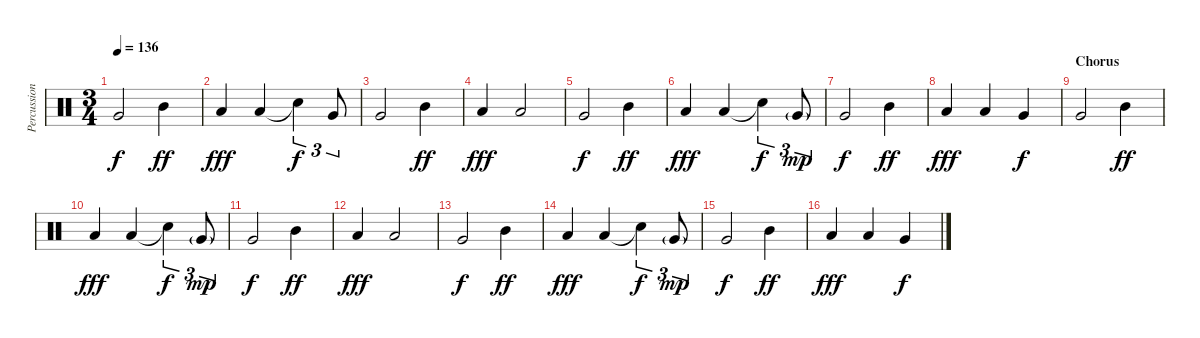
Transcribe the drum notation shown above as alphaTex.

\track ("Percussions / Stephen Van Haestregt" "Percussion") {instrument percussion}
\staff {score}
\articulation defaults
\ts (3 4)
\tempo 136
\clef neutral
\ks c "Very Low Tom (hit)".2{dy f} "Mid Tom (hit)".4{dy ff}
|
"Low Tom (hit)".4{dy fff} "Low Tom (hit)".4 "Snare (hit)"{t}.4{tu (3 2) dy f} "Very Low Tom (hit)".8{tu (3 2)} |
"Very Low Tom (hit)".2 "Mid Tom (hit)".4{dy ff} |
"Low Tom (hit)".4{dy fff} "Low Tom (hit)".2 |
"Very Low Tom (hit)".2{dy f} "Mid Tom (hit)".4{dy ff} |
"Low Tom (hit)".4{dy fff} "Low Tom (hit)".4 "Snare (hit)"{t}.4{tu (3 2) dy f} "Very Low Tom (hit)"{g}.8{tu (3 2) dy mp} |
"Very Low Tom (hit)".2{dy f} "Mid Tom (hit)".4{dy ff} |
"Low Tom (hit)".4{dy fff} "Low Tom (hit)".4 "Very Low Tom (hit)".4{dy f} |
\section ("" "Chorus")
"Very Low Tom (hit)".2 "Mid Tom (hit)".4{dy ff} |
"Low Tom (hit)".4{dy fff} "Low Tom (hit)".4 "Snare (hit)"{t}.4{tu (3 2) dy f} "Very Low Tom (hit)"{g}.8{tu (3 2) dy mp} |
"Very Low Tom (hit)".2{dy f} "Mid Tom (hit)".4{dy ff} |
"Low Tom (hit)".4{dy fff} "Low Tom (hit)".2 |
"Very Low Tom (hit)".2{dy f} "Mid Tom (hit)".4{dy ff} |
"Low Tom (hit)".4{dy fff} "Low Tom (hit)".4 "Snare (hit)"{t}.4{tu (3 2) dy f} "Very Low Tom (hit)"{g}.8{tu (3 2) dy mp} |
"Very Low Tom (hit)".2{dy f} "Mid Tom (hit)".4{dy ff} |
"Low Tom (hit)".4{dy fff} "Low Tom (hit)".4 "Very Low Tom (hit)".4{dy f}
